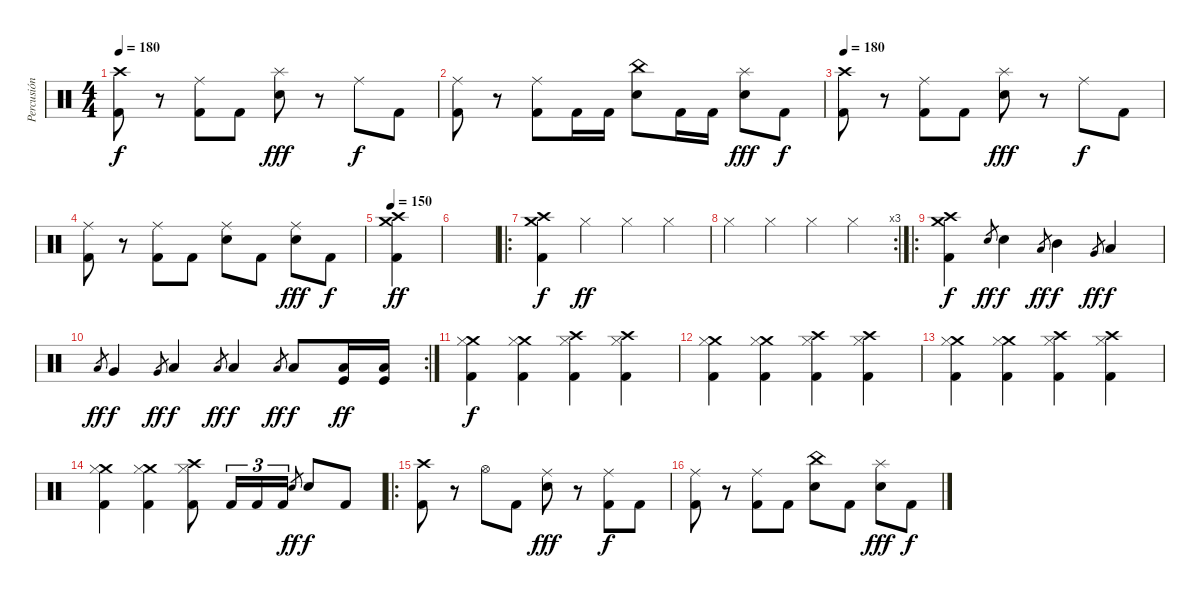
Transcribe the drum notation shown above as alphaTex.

\track ("Percusión" "Percusión") {instrument percussion}
\staff {score}
\articulation defaults
\ts (4 4)
\tempo 180
\clef neutral
\ks c
("Crash high (hit)" "Kick (hit) 2").8{dy f} r.8 ("Ride (middle)" "Kick (hit) 2").8 "Kick (hit) 2".8 ("Splash (hit)" "Snare (hit) 2").8{dy fff} r.8 "Ride (middle)".8{dy f} "Kick (hit) 2".8 |
("Ride (middle)" "Kick (hit) 2").8 r.8 ("Ride (middle)" "Kick (hit) 2").8 "Kick (hit) 2".16 "Kick (hit) 2".16 ("China (hit)" "Snare (hit) 2").8 "Kick (hit) 2".16 "Kick (hit) 2".16 ("Splash (hit)" "Snare (hit) 2").8{dy fff} "Kick (hit) 2".8{dy f} |
\tempo 180
("Crash high (hit)" "Kick (hit) 2").8 r.8 ("Ride (middle)" "Kick (hit) 2").8 "Kick (hit) 2".8 ("Splash (hit)" "Snare (hit) 2").8{dy fff} r.8 "Ride (middle)".8{dy f} "Kick (hit) 2".8 |
("Ride (middle)" "Kick (hit) 2").8 r.8 ("Ride (middle)" "Kick (hit) 2").8 "Kick (hit) 2".8 ("Ride (middle)" "Snare (hit) 2").8 "Kick (hit) 2".8 ("Ride (middle)" "Snare (hit) 2").8{dy fff} "Kick (hit) 2".8{dy f} |
\tempo 150
("Crash medium (hit)" "Crash high (hit)" "Kick (hit) 2").4{dy ff} |
|
\ro
("Crash high (hit)" "Crash medium (hit)" "Kick (hit) 2").4{dy f} "Hi-Hat (closed)".4{dy ff} "Hi-Hat (closed)".4 "Hi-Hat (closed)".4 |
\rc 3 "Hi-Hat (closed)".4 "Hi-Hat (closed)".4 "Hi-Hat (closed)".4 "Hi-Hat (closed)".4
|
\ro
("Crash high (hit)" "Crash medium (hit)" "Kick (hit) 2").4{dy f} "Snare (hit) 2".8{gr dy ff} "Snare (hit) 2".4{dy f} "Low Tom (hit)".8{gr dy ff} "Mid Tom (hit)".4{dy f} "Very Low Tom (hit)".8{gr dy ff} "Low Tom (hit)".4{dy f} |
\rc 2 "Low Tom (hit)".8{gr dy ff} "Very Low Tom (hit)".4{dy f} "Very Low Tom (hit)".8{gr dy ff} "Low Floor Tom (hit)".4{dy f} "Low Floor Tom (hit)".8{gr dy ff} "Low Floor Tom (hit)".4{dy f} "Low Floor Tom (hit)".8{gr dy ff} "Low Floor Tom (hit)".8{dy f}
("Low Floor Tom (hit)" "Kick (hit)").16{dy ff} ("Low Floor Tom (hit)" "Kick (hit)").16 |
("Crash medium (hit)" "Hi-Hat (closed)" "Kick (hit) 2").4{dy f} ("Crash medium (hit)" "Hi-Hat (closed)" "Kick (hit) 2").4 ("Crash high (hit)" "Hi-Hat (closed)" "Kick (hit) 2").4 ("Crash high (hit)" "Hi-Hat (closed)" "Kick (hit) 2").4 |
("Crash medium (hit)" "Hi-Hat (closed)" "Kick (hit) 2").4 ("Crash medium (hit)" "Hi-Hat (closed)" "Kick (hit) 2").4 ("Crash high (hit)" "Hi-Hat (closed)" "Kick (hit) 2").4 ("Crash high (hit)" "Hi-Hat (closed)" "Kick (hit) 2").4 |
("Crash medium (hit)" "Hi-Hat (closed)" "Kick (hit) 2").4 ("Crash medium (hit)" "Hi-Hat (closed)" "Kick (hit) 2").4 ("Crash high (hit)" "Hi-Hat (closed)" "Kick (hit) 2").4 ("Crash high (hit)" "Hi-Hat (closed)" "Kick (hit) 2").4 |
("Crash medium (hit)" "Hi-Hat (closed)" "Kick (hit) 2").4 ("Crash medium (hit)" "Hi-Hat (closed)" "Kick (hit) 2").4 ("Crash high (hit)" "Hi-Hat (closed)" "Kick (hit) 2").8 "Kick (hit) 2".16{tu (3 2)} "Kick (hit) 2".16{tu (3 2)} "Kick (hit) 2".16{tu (3 2)} "Snare (hit) 2".8{gr dy ff} "Snare (hit) 2".8{dy f} "Kick (hit) 2".8 |
\ro
("Crash high (hit)" "Kick (hit) 2").8 r.8 "Hi-Hat (open)".8 "Kick (hit) 2".8 ("Ride (middle)" "Snare (hit) 2").8{dy fff} r.8 ("Ride (middle)" "Kick (hit) 2").8{dy f} "Kick (hit) 2".8 |
("Ride (middle)" "Kick (hit) 2").8 r.8 ("Ride (middle)" "Kick (hit) 2").8 "Kick (hit) 2".8 ("China (hit)" "Snare (hit) 2").8 "Kick (hit) 2".8 ("Splash (hit)" "Snare (hit) 2").8{dy fff} "Kick (hit) 2".8{dy f}
